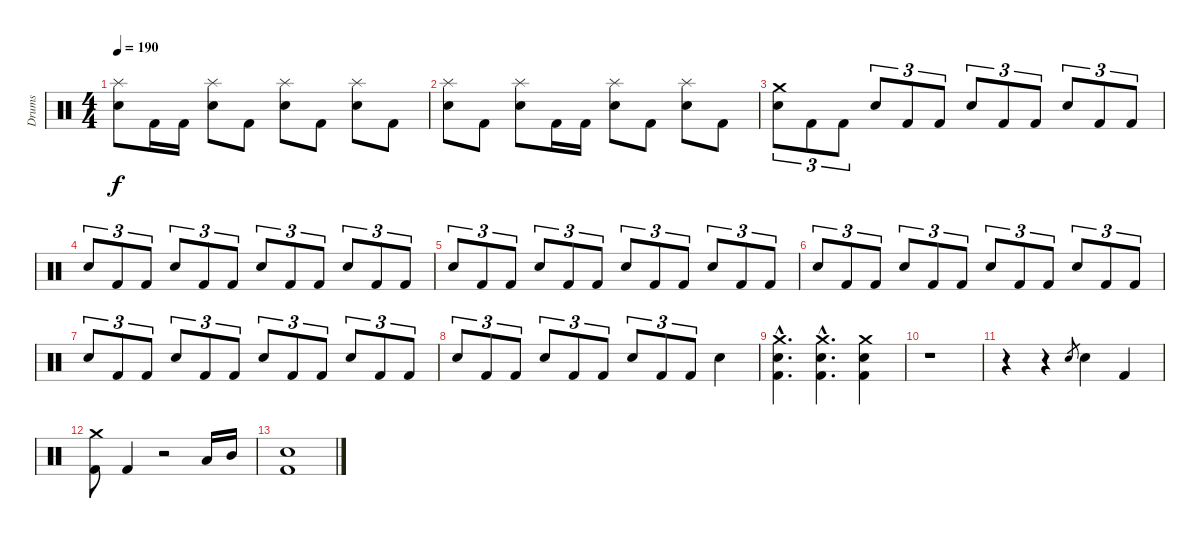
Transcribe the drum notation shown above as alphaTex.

\track ("Drums" "Drums") {instrument percussion}
\staff {score}
\articulation defaults
\ts (4 4)
\tempo 190
\clef neutral
\ks c
("Splash (hit)" "Electric Snare (hit)").8{dy f} "Kick (hit) 2".16 "Kick (hit) 2".16 ("Splash (hit)" "Electric Snare (hit)").8 "Kick (hit) 2".8 ("Splash (hit)" "Electric Snare (hit)").8 "Kick (hit) 2".8 ("Splash (hit)" "Electric Snare (hit)").8 "Kick (hit) 2".8 |
("Splash (hit)" "Electric Snare (hit)").8 "Kick (hit) 2".8 ("Splash (hit)" "Electric Snare (hit)").8 "Kick (hit) 2".16 "Kick (hit) 2".16 ("Splash (hit)" "Electric Snare (hit)").8 "Kick (hit) 2".8 ("Splash (hit)" "Electric Snare (hit)").8 "Kick (hit) 2".8 |
("Crash medium (hit)" "Electric Snare (hit)").8{tu (3 2)} "Kick (hit) 2".8{tu (3 2)} "Kick (hit) 2".8{tu (3 2)} "Electric Snare (hit)".8{tu (3 2)} "Kick (hit) 2".8{tu (3 2)} "Kick (hit) 2".8{tu (3 2)} "Electric Snare (hit)".8{tu (3 2)} "Kick (hit) 2".8{tu (3 2)} "Kick (hit) 2".8{tu (3 2)} "Electric Snare (hit)".8{tu (3 2)} "Kick (hit) 2".8{tu (3 2)} "Kick (hit) 2".8{tu (3 2)} |
"Electric Snare (hit)".8{tu (3 2)} "Kick (hit) 2".8{tu (3 2)} "Kick (hit) 2".8{tu (3 2)} "Electric Snare (hit)".8{tu (3 2)} "Kick (hit) 2".8{tu (3 2)} "Kick (hit) 2".8{tu (3 2)} "Electric Snare (hit)".8{tu (3 2)} "Kick (hit) 2".8{tu (3 2)} "Kick (hit) 2".8{tu (3 2)} "Electric Snare (hit)".8{tu (3 2)} "Kick (hit) 2".8{tu (3 2)} "Kick (hit) 2".8{tu (3 2)} |
"Electric Snare (hit)".8{tu (3 2)} "Kick (hit) 2".8{tu (3 2)} "Kick (hit) 2".8{tu (3 2)} "Electric Snare (hit)".8{tu (3 2)} "Kick (hit) 2".8{tu (3 2)} "Kick (hit) 2".8{tu (3 2)} "Electric Snare (hit)".8{tu (3 2)} "Kick (hit) 2".8{tu (3 2)} "Kick (hit) 2".8{tu (3 2)} "Electric Snare (hit)".8{tu (3 2)} "Kick (hit) 2".8{tu (3 2)} "Kick (hit) 2".8{tu (3 2)} |
"Electric Snare (hit)".8{tu (3 2)} "Kick (hit) 2".8{tu (3 2)} "Kick (hit) 2".8{tu (3 2)} "Electric Snare (hit)".8{tu (3 2)} "Kick (hit) 2".8{tu (3 2)} "Kick (hit) 2".8{tu (3 2)} "Electric Snare (hit)".8{tu (3 2)} "Kick (hit) 2".8{tu (3 2)} "Kick (hit) 2".8{tu (3 2)} "Electric Snare (hit)".8{tu (3 2)} "Kick (hit) 2".8{tu (3 2)} "Kick (hit) 2".8{tu (3 2)} |
"Electric Snare (hit)".8{tu (3 2)} "Kick (hit) 2".8{tu (3 2)} "Kick (hit) 2".8{tu (3 2)} "Electric Snare (hit)".8{tu (3 2)} "Kick (hit) 2".8{tu (3 2)} "Kick (hit) 2".8{tu (3 2)} "Electric Snare (hit)".8{tu (3 2)} "Kick (hit) 2".8{tu (3 2)} "Kick (hit) 2".8{tu (3 2)} "Electric Snare (hit)".8{tu (3 2)} "Kick (hit) 2".8{tu (3 2)} "Kick (hit) 2".8{tu (3 2)} |
"Electric Snare (hit)".8{tu (3 2)} "Kick (hit) 2".8{tu (3 2)} "Kick (hit) 2".8{tu (3 2)} "Electric Snare (hit)".8{tu (3 2)} "Kick (hit) 2".8{tu (3 2)} "Kick (hit) 2".8{tu (3 2)} "Electric Snare (hit)".8{tu (3 2)} "Kick (hit) 2".8{tu (3 2)} "Kick (hit) 2".8{tu (3 2)} "Electric Snare (hit)".4 |
("Crash medium (hit)"{hac} "Electric Snare (hit)"{hac} "Kick (hit) 2"{hac}).4{d} ("Crash medium (hit)"{hac} "Electric Snare (hit)"{hac} "Kick (hit) 2"{hac}).4{d} ("Crash medium (hit)" "Electric Snare (hit)" "Kick (hit) 2").4 |
r.1 |
r.4 r.4 "Electric Snare (hit)".8{gr} "Electric Snare (hit)".4 "Kick (hit) 2".4 |
("Crash medium (hit)" "Kick (hit) 2").8 "Kick (hit) 2".4 r.2 "Low Tom (hit)".16 "Mid Tom (hit)".16 |
("Snare (hit) 2" "Kick (hit) 2").1{bd 240}
